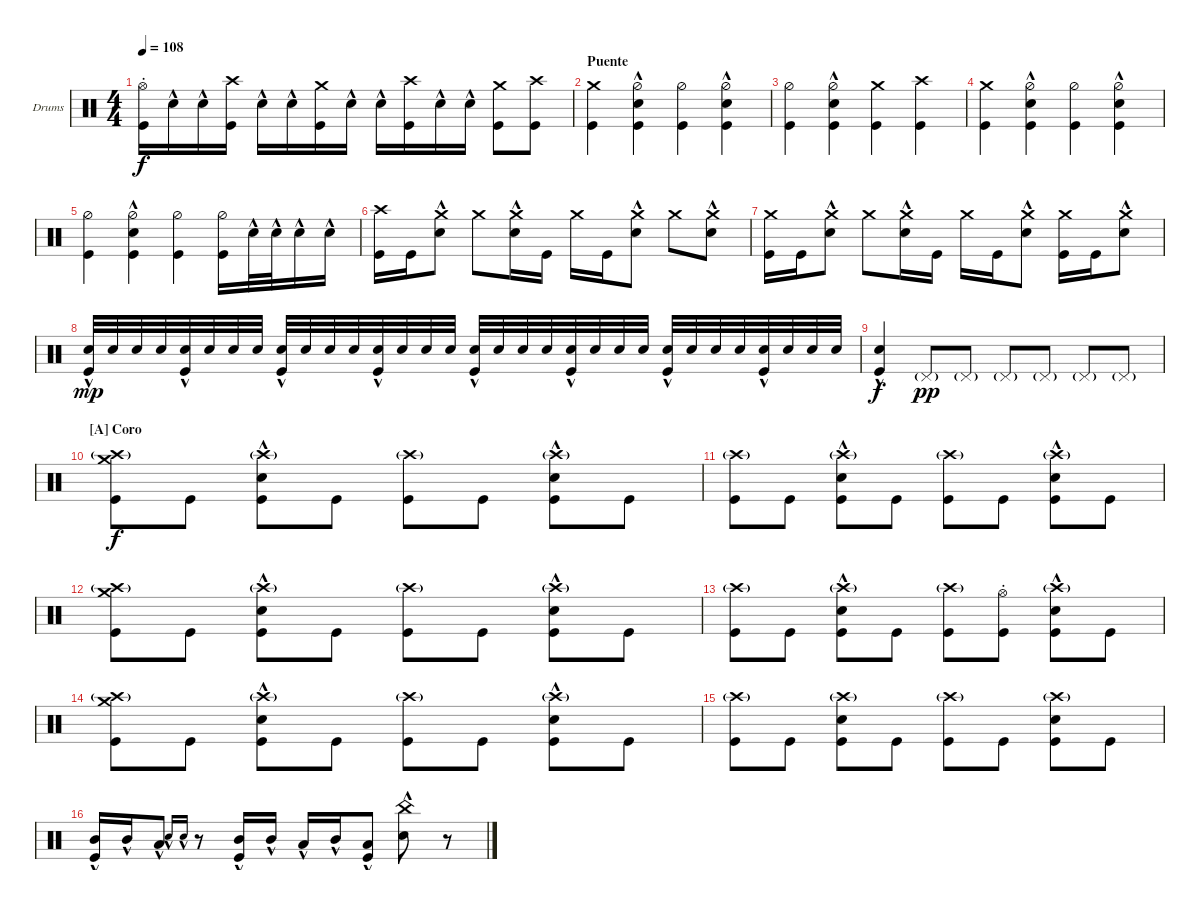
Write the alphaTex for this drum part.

\defaultSystemsLayout 4
\bracketExtendMode groupsimilarinstruments
\firstSystemTrackNameOrientation horizontal
\otherSystemsTrackNameOrientation horizontal
\track ("Drumkit " "Drums") {instrument percussion}
\staff {score}
\articulation defaults
\ts (4 4)
\tempo 108
\clef neutral
\ks c
("Kick (hit)" "Hi-Hat (open)"{st}).16{dy f} "Snare (hit) 2"{hac}.16 "Snare (hit) 2"{hac}.16 ("Kick (hit)" "Crash high (hit)").16 "Snare (hit) 2"{hac}.16 "Snare (hit) 2"{hac}.16 ("Kick (hit)" "Crash medium (hit)").16 "Snare (hit) 2"{hac}.16 "Snare (hit) 2"{hac}.16 ("Kick (hit)" "Crash high (hit)").16 "Snare (hit) 2"{hac}.16 "Snare (hit) 2"{hac}.16 ("Kick (hit)" "Crash medium (hit)").8 ("Kick (hit)" "Crash high (hit)").8 |
\section ("" "Puente")
("Kick (hit)" "Crash medium (hit)").4 ("Kick (hit)" "Snare (hit) 2"{hac} "Hi-Hat (half)"{hac}).4 ("Hi-Hat (half)" "Kick (hit)").4 ("Kick (hit)" "Snare (hit) 2"{hac} "Hi-Hat (half)"{hac}).4 |
("Kick (hit)" "Hi-Hat (half)").4 ("Kick (hit)" "Snare (hit) 2"{hac} "Hi-Hat (half)"{hac}).4 ("Kick (hit)" "Crash medium (hit)").4 ("Kick (hit)" "Crash high (hit)").4 |
("Kick (hit)" "Crash medium (hit)").4 ("Kick (hit)" "Snare (hit) 2"{hac} "Hi-Hat (half)"{hac}).4 ("Hi-Hat (half)" "Kick (hit)").4 ("Kick (hit)" "Snare (hit) 2"{hac} "Hi-Hat (half)"{hac}).4 |
("Kick (hit)" "Hi-Hat (half)").4 ("Kick (hit)" "Snare (hit) 2"{hac} "Hi-Hat (half)"{hac}).4 ("Kick (hit)" "Hi-Hat (half)").4 ("Hi-Hat (half)" "Kick (hit)").16 "Snare (hit) 2"{hac}.32 "Snare (hit) 2"{hac}.32 "Snare (hit) 2"{hac}.16 "Snare (hit) 2"{hac}.16 |
("Crash high (hit)" "Kick (hit)").16 "Kick (hit)".16 ("Crash medium (hit)" "Snare (hit) 2"{hac}).8 "Crash medium (hit)".8 ("Crash medium (hit)" "Snare (hit) 2"{hac}).16 "Kick (hit)".16 "Crash medium (hit)".16 "Kick (hit)".16 ("Crash medium (hit)" "Snare (hit) 2"{hac}).8 "Crash medium (hit)".8 ("Snare (hit) 2"{hac} "Crash medium (hit)").8 |
("Kick (hit)" "Crash medium (hit)").16 "Kick (hit)".16 ("Crash medium (hit)" "Snare (hit) 2"{hac}).8 "Crash medium (hit)".8 ("Crash medium (hit)" "Snare (hit) 2"{hac}).16 "Kick (hit)".16 "Crash medium (hit)".16 "Kick (hit)".16 ("Crash medium (hit)" "Snare (hit) 2"{hac}).8 ("Crash medium (hit)" "Kick (hit)").16 "Kick (hit)".16 ("Snare (hit) 2"{hac} "Crash medium (hit)").8 |
("Snare (hit) 2" "Kick (hit)"{hac}).32{dy mp} "Snare (hit) 2".32 "Snare (hit) 2".32 "Snare (hit) 2".32 ("Snare (hit) 2"{hac} "Kick (hit)"{hac}).32 "Snare (hit) 2".32 "Snare (hit) 2".32 "Snare (hit) 2".32 ("Snare (hit) 2" "Kick (hit)"{hac}).32 "Snare (hit) 2".32 "Snare (hit) 2".32 "Snare (hit) 2".32 ("Snare (hit) 2"{hac} "Kick (hit)"{hac}).32 "Snare (hit) 2".32 "Snare (hit) 2".32 "Snare (hit) 2".32 ("Snare (hit) 2" "Kick (hit)"{hac}).32 "Snare (hit) 2".32 "Snare (hit) 2".32 "Snare (hit) 2".32 ("Snare (hit) 2"{hac} "Kick (hit)"{hac}).32 "Snare (hit) 2".32 "Snare (hit) 2".32 "Snare (hit) 2".32 ("Snare (hit) 2" "Kick (hit)"{hac}).32 "Snare (hit) 2".32 "Snare (hit) 2".32 "Snare (hit) 2".32 ("Snare (hit) 2"{hac} "Kick (hit)"{hac}).32 "Snare (hit) 2".32 "Snare (hit) 2".32 "Snare (hit) 2".32 |
("Snare (hit) 2"{hac} "Kick (hit)").4{dy f} "Pedal Hi-Hat (hit)"{g}.8{dy pp} "Pedal Hi-Hat (hit)"{g}.8 "Pedal Hi-Hat (hit)"{g}.8 "Pedal Hi-Hat (hit)"{g}.8 "Pedal Hi-Hat (hit)"{g}.8 "Pedal Hi-Hat (hit)"{g}.8 |
\section ("A" "Coro ")
("Kick (hit)" "Crash medium (hit)" "Crash high (hit)"{g}).8{dy f} "Kick (hit)".8 ("Kick (hit)" "Snare (hit) 2"{hac} "Crash high (hit)"{g}).8 "Kick (hit)".8 ("Kick (hit)" "Crash high (hit)"{g}).8 "Kick (hit)".8 ("Kick (hit)" "Snare (hit) 2"{hac} "Crash high (hit)"{g}).8 "Kick (hit)".8 |
("Kick (hit)" "Crash high (hit)"{g}).8 "Kick (hit)".8 ("Kick (hit)" "Snare (hit) 2"{hac} "Crash high (hit)"{g}).8 "Kick (hit)".8 ("Kick (hit)" "Crash high (hit)"{g}).8 "Kick (hit)".8 ("Kick (hit)" "Snare (hit) 2"{hac} "Crash high (hit)"{g}).8 "Kick (hit)".8 |
("Kick (hit)" "Crash high (hit)"{g} "Crash medium (hit)").8 "Kick (hit)".8 ("Kick (hit)" "Snare (hit) 2"{hac} "Crash high (hit)"{g}).8 "Kick (hit)".8 ("Kick (hit)" "Crash high (hit)"{g}).8 "Kick (hit)".8 ("Kick (hit)" "Snare (hit) 2"{hac} "Crash high (hit)"{g}).8 "Kick (hit)".8 |
("Kick (hit)" "Crash high (hit)"{g}).8 "Kick (hit)".8 ("Kick (hit)" "Snare (hit) 2"{hac} "Crash high (hit)"{g}).8 "Kick (hit)".8 ("Kick (hit)" "Crash high (hit)"{g}).8 ("Kick (hit)" "Hi-Hat (open)"{st}).8 ("Kick (hit)" "Snare (hit) 2"{hac} "Crash high (hit)"{g}).8 "Kick (hit)".8 |
("Kick (hit)" "Crash high (hit)"{g} "Crash medium (hit)").8 "Kick (hit)".8 ("Kick (hit)" "Snare (hit) 2"{hac} "Crash high (hit)"{g}).8 "Kick (hit)".8 ("Kick (hit)" "Crash high (hit)"{g}).8 "Kick (hit)".8 ("Kick (hit)" "Snare (hit) 2"{hac} "Crash high (hit)"{g}).8 "Kick (hit)".8 |
("Kick (hit)" "Crash high (hit)"{g}).8 "Kick (hit)".8 ("Kick (hit)" "Snare (hit) 2" "Crash high (hit)"{g}).8 "Kick (hit)".8 ("Kick (hit)" "Crash high (hit)"{g}).8 "Kick (hit)".8 ("Kick (hit)" "Snare (hit) 2" "Crash high (hit)"{g}).8 "Kick (hit)".8 |
("Kick (hit)" "Mid Tom (hit)"{hac}).16 "Mid Tom (hit)"{hac}.16 "Low Tom (hit)"{hac}.8 "Snare (hit) 2"{hac}.16{gr onbeat} "Snare (hit) 2"{hac}.16{gr onbeat} r.8 ("Mid Tom (hit)"{hac} "Kick (hit)").16 "Mid Tom (hit)"{hac}.16 "Low Tom (hit)"{hac}.16 "Mid Tom (hit)"{hac}.16 ("Low Tom (hit)"{hac} "Kick (hit)").8 ("Snare (hit) 2"{hac} "China (hit)").8 r.8
